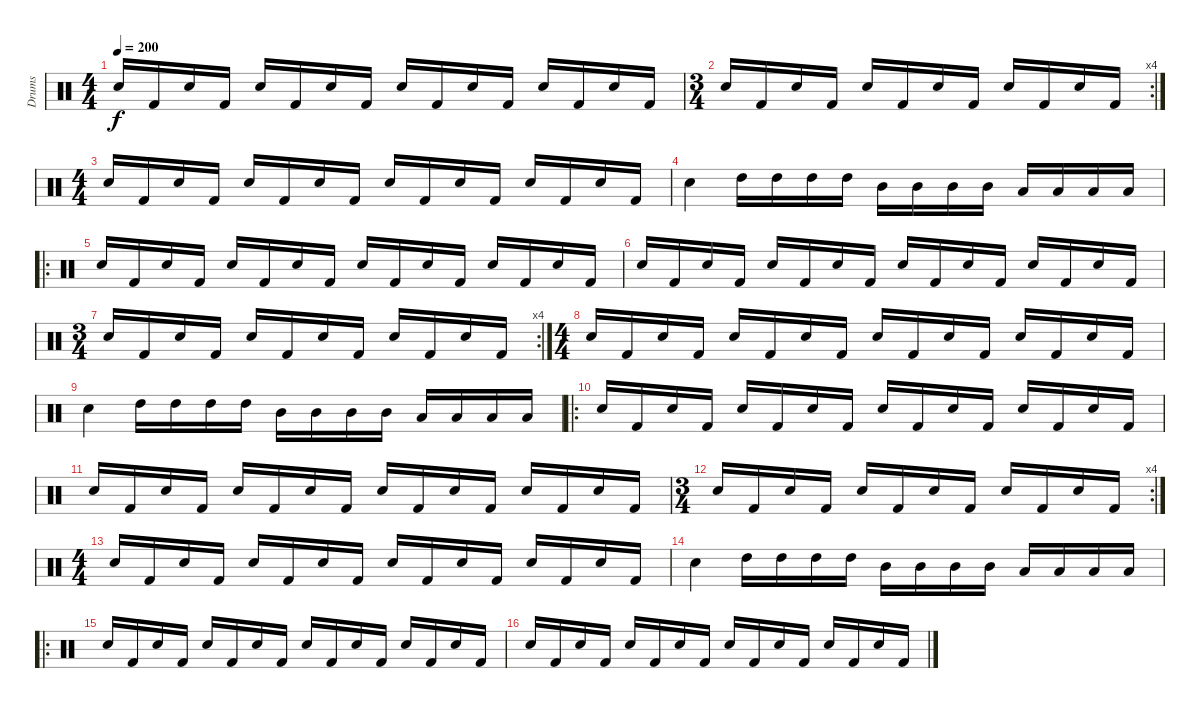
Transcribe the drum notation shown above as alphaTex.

\track ("Drums" "Drums") {instrument percussion}
\staff {score}
\articulation defaults
\ts (4 4)
\tempo 200
\clef neutral
\ks c "Electric Snare (hit)".16{dy f} "Kick (hit) 2".16 "Electric Snare (hit)".16 "Kick (hit) 2".16 "Electric Snare (hit)".16 "Kick (hit) 2".16 "Electric Snare (hit)".16 "Kick (hit) 2".16 "Electric Snare (hit)".16 "Kick (hit) 2".16 "Electric Snare (hit)".16 "Kick (hit) 2".16 "Electric Snare (hit)".16 "Kick (hit) 2".16 "Electric Snare (hit)".16 "Kick (hit) 2".16
|
\rc 4
\ts (3 4)
"Electric Snare (hit)".16 "Kick (hit) 2".16 "Electric Snare (hit)".16 "Kick (hit) 2".16 "Electric Snare (hit)".16 "Kick (hit) 2".16 "Electric Snare (hit)".16 "Kick (hit) 2".16 "Electric Snare (hit)".16 "Kick (hit) 2".16 "Electric Snare (hit)".16 "Kick (hit) 2".16 |
\ts (4 4)
"Electric Snare (hit)".16 "Kick (hit) 2".16 "Electric Snare (hit)".16 "Kick (hit) 2".16 "Electric Snare (hit)".16 "Kick (hit) 2".16 "Electric Snare (hit)".16 "Kick (hit) 2".16 "Electric Snare (hit)".16 "Kick (hit) 2".16 "Electric Snare (hit)".16 "Kick (hit) 2".16 "Electric Snare (hit)".16 "Kick (hit) 2".16 "Electric Snare (hit)".16 "Kick (hit) 2".16 |
"Electric Snare (hit)".4 "High Tom (hit)".16 "High Tom (hit)".16 "High Tom (hit)".16 "High Tom (hit)".16 "Mid Tom (hit)".16 "Mid Tom (hit)".16 "Mid Tom (hit)".16 "Mid Tom (hit)".16 "Low Tom (hit)".16 "Low Tom (hit)".16 "Low Tom (hit)".16 "Low Tom (hit)".16 |
\ro "Electric Snare (hit)".16 "Kick (hit) 2".16 "Electric Snare (hit)".16 "Kick (hit) 2".16 "Electric Snare (hit)".16 "Kick (hit) 2".16 "Electric Snare (hit)".16 "Kick (hit) 2".16 "Electric Snare (hit)".16 "Kick (hit) 2".16 "Electric Snare (hit)".16 "Kick (hit) 2".16 "Electric Snare (hit)".16 "Kick (hit) 2".16 "Electric Snare (hit)".16 "Kick (hit) 2".16
|
"Electric Snare (hit)".16 "Kick (hit) 2".16 "Electric Snare (hit)".16 "Kick (hit) 2".16 "Electric Snare (hit)".16 "Kick (hit) 2".16 "Electric Snare (hit)".16 "Kick (hit) 2".16 "Electric Snare (hit)".16 "Kick (hit) 2".16 "Electric Snare (hit)".16 "Kick (hit) 2".16 "Electric Snare (hit)".16 "Kick (hit) 2".16 "Electric Snare (hit)".16 "Kick (hit) 2".16 |
\rc 4
\ts (3 4)
"Electric Snare (hit)".16 "Kick (hit) 2".16 "Electric Snare (hit)".16 "Kick (hit) 2".16 "Electric Snare (hit)".16 "Kick (hit) 2".16 "Electric Snare (hit)".16 "Kick (hit) 2".16 "Electric Snare (hit)".16 "Kick (hit) 2".16 "Electric Snare (hit)".16 "Kick (hit) 2".16 |
\ts (4 4)
"Electric Snare (hit)".16 "Kick (hit) 2".16 "Electric Snare (hit)".16 "Kick (hit) 2".16 "Electric Snare (hit)".16 "Kick (hit) 2".16 "Electric Snare (hit)".16 "Kick (hit) 2".16 "Electric Snare (hit)".16 "Kick (hit) 2".16 "Electric Snare (hit)".16 "Kick (hit) 2".16 "Electric Snare (hit)".16 "Kick (hit) 2".16 "Electric Snare (hit)".16 "Kick (hit) 2".16 |
"Electric Snare (hit)".4 "High Tom (hit)".16 "High Tom (hit)".16 "High Tom (hit)".16 "High Tom (hit)".16 "Mid Tom (hit)".16 "Mid Tom (hit)".16 "Mid Tom (hit)".16 "Mid Tom (hit)".16 "Low Tom (hit)".16 "Low Tom (hit)".16 "Low Tom (hit)".16 "Low Tom (hit)".16 |
\ro "Electric Snare (hit)".16 "Kick (hit) 2".16 "Electric Snare (hit)".16 "Kick (hit) 2".16 "Electric Snare (hit)".16 "Kick (hit) 2".16 "Electric Snare (hit)".16 "Kick (hit) 2".16 "Electric Snare (hit)".16 "Kick (hit) 2".16 "Electric Snare (hit)".16 "Kick (hit) 2".16 "Electric Snare (hit)".16 "Kick (hit) 2".16 "Electric Snare (hit)".16 "Kick (hit) 2".16
|
"Electric Snare (hit)".16 "Kick (hit) 2".16 "Electric Snare (hit)".16 "Kick (hit) 2".16 "Electric Snare (hit)".16 "Kick (hit) 2".16 "Electric Snare (hit)".16 "Kick (hit) 2".16 "Electric Snare (hit)".16 "Kick (hit) 2".16 "Electric Snare (hit)".16 "Kick (hit) 2".16 "Electric Snare (hit)".16 "Kick (hit) 2".16 "Electric Snare (hit)".16 "Kick (hit) 2".16 |
\rc 4
\ts (3 4)
"Electric Snare (hit)".16 "Kick (hit) 2".16 "Electric Snare (hit)".16 "Kick (hit) 2".16 "Electric Snare (hit)".16 "Kick (hit) 2".16 "Electric Snare (hit)".16 "Kick (hit) 2".16 "Electric Snare (hit)".16 "Kick (hit) 2".16 "Electric Snare (hit)".16 "Kick (hit) 2".16 |
\ts (4 4)
"Electric Snare (hit)".16 "Kick (hit) 2".16 "Electric Snare (hit)".16 "Kick (hit) 2".16 "Electric Snare (hit)".16 "Kick (hit) 2".16 "Electric Snare (hit)".16 "Kick (hit) 2".16 "Electric Snare (hit)".16 "Kick (hit) 2".16 "Electric Snare (hit)".16 "Kick (hit) 2".16 "Electric Snare (hit)".16 "Kick (hit) 2".16 "Electric Snare (hit)".16 "Kick (hit) 2".16 |
"Electric Snare (hit)".4 "High Tom (hit)".16 "High Tom (hit)".16 "High Tom (hit)".16 "High Tom (hit)".16 "Mid Tom (hit)".16 "Mid Tom (hit)".16 "Mid Tom (hit)".16 "Mid Tom (hit)".16 "Low Tom (hit)".16 "Low Tom (hit)".16 "Low Tom (hit)".16 "Low Tom (hit)".16 |
\ro "Electric Snare (hit)".16 "Kick (hit) 2".16 "Electric Snare (hit)".16 "Kick (hit) 2".16 "Electric Snare (hit)".16 "Kick (hit) 2".16 "Electric Snare (hit)".16 "Kick (hit) 2".16 "Electric Snare (hit)".16 "Kick (hit) 2".16 "Electric Snare (hit)".16 "Kick (hit) 2".16 "Electric Snare (hit)".16 "Kick (hit) 2".16 "Electric Snare (hit)".16 "Kick (hit) 2".16
|
"Electric Snare (hit)".16 "Kick (hit) 2".16 "Electric Snare (hit)".16 "Kick (hit) 2".16 "Electric Snare (hit)".16 "Kick (hit) 2".16 "Electric Snare (hit)".16 "Kick (hit) 2".16 "Electric Snare (hit)".16 "Kick (hit) 2".16 "Electric Snare (hit)".16 "Kick (hit) 2".16 "Electric Snare (hit)".16 "Kick (hit) 2".16 "Electric Snare (hit)".16 "Kick (hit) 2".16
